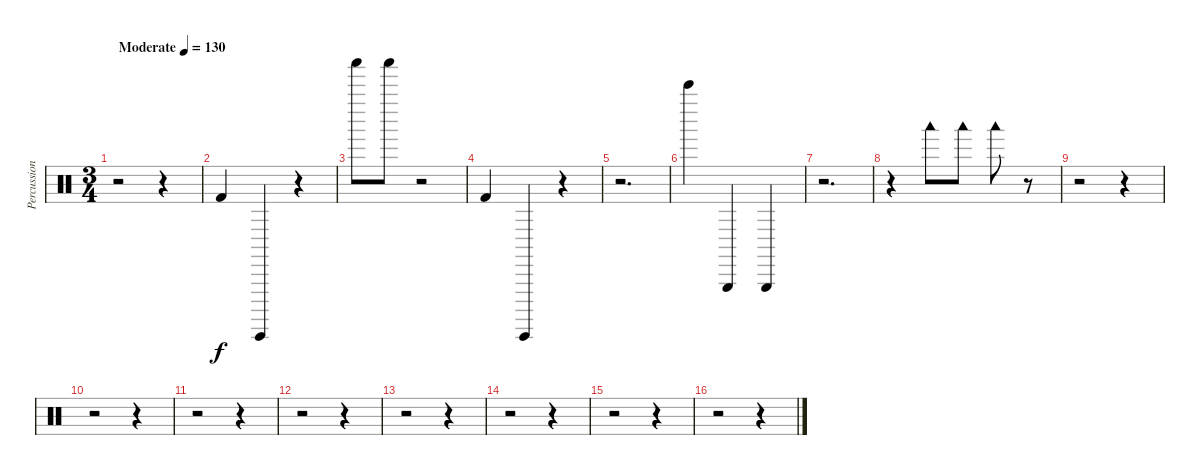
\track ("Percussion" "Percussion") {instrument percussion}
\staff {score}
\articulation defaults
\ts (3 4)
\tempo (130 "Moderate")
\clef neutral
\ks c
r.2{dy f} r.4 |
"Kick (hit) 2".4 "Guiro (hit)".4 r.4 |
"Shaker (hit)".8 "Shaker (hit)".8 r.2 |
"Kick (hit) 2".4 "Guiro (hit)".4 r.4 |
r.2{d} |
"Bell Tree (hit)".4 "Triangle (hit)".4 "Triangle (hit)".4 |
r.2{d} |
r.4 "Woodblock low (hit)".8 "Woodblock low (hit)".8 "Woodblock low (hit)".8 r.8 |
r.2 r.4 |
r.2 r.4 |
r.2 r.4 |
r.2 r.4 |
r.2 r.4 |
r.2 r.4 |
r.2 r.4 |
r.2 r.4
